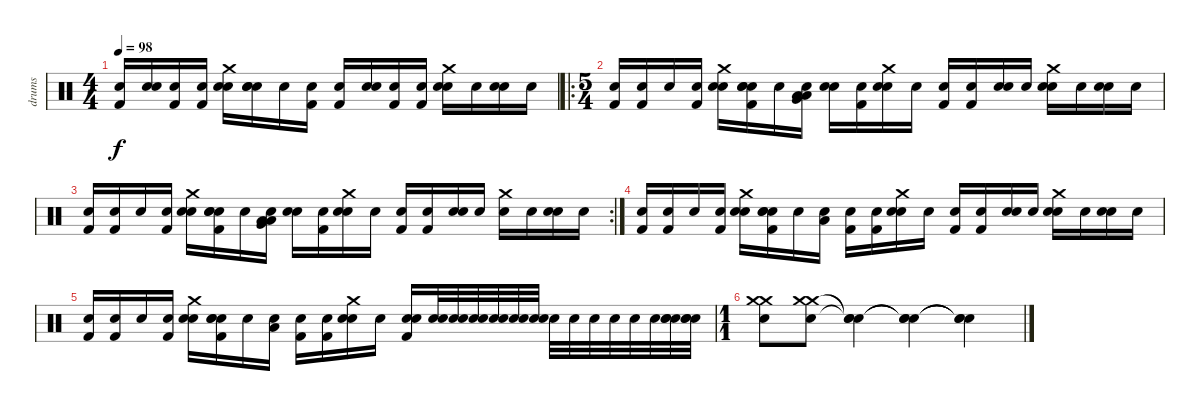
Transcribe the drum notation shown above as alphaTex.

\track ("drums" "drums") {instrument percussion}
\staff {score}
\articulation defaults
\ts (4 4)
\tempo 98
\clef neutral
\ks c
("Snare (hit)" "Kick (hit) 2").16{dy f} ("Snare (hit)" "Snare (hit) 2").16 ("Snare (hit)" "Kick (hit) 2").16 ("Snare (hit)" "Kick (hit) 2").16 ("Snare (hit)" "Crash medium (hit)" "Snare (hit) 2").16 ("Snare (hit)" "Snare (hit)" "Snare (hit)").16 "Snare (hit)".16 ("Snare (hit)" "Kick (hit) 2").16 ("Snare (hit)" "Kick (hit) 2").16 ("Snare (hit)" "Snare (hit) 2").16 ("Snare (hit)" "Kick (hit) 2").16 ("Snare (hit)" "Kick (hit) 2").16 ("Snare (hit)" "Crash medium (hit)" "Snare (hit) 2").16 "Snare (hit)".16 ("Snare (hit)" "Snare (hit) 2").16 "Snare (hit)".16 |
\ro
\ts (5 4)
("Snare (hit)" "Kick (hit) 2").16 ("Snare (hit)" "Kick (hit) 2").16 "Snare (hit)".16 ("Snare (hit)" "Kick (hit) 2").16 ("Snare (hit)" "Crash medium (hit)" "Snare (hit) 2").16 ("Snare (hit)" "Snare (hit)" "Snare (hit)" "Kick (hit) 2").16 "Snare (hit)".16 ("Snare (hit)" "Low Floor Tom (hit)" "Very Low Tom (hit)" "Low Tom (hit)").16 ("Snare (hit)" "Snare (hit)").16 ("Snare (hit)" "Kick (hit) 2").16 ("Snare (hit)" "Crash medium (hit)" "Snare (hit) 2").16 "Snare (hit)".16 ("Snare (hit)" "Kick (hit) 2").16 ("Snare (hit)" "Kick (hit) 2").16 ("Snare (hit)" "Snare (hit) 2").16 "Snare (hit)".16 ("Snare (hit)" "Crash medium (hit)" "Snare (hit) 2").16 "Snare (hit)".16 ("Snare (hit)" "Snare (hit) 2").16 "Snare (hit)".16 |
\rc 2
("Snare (hit)" "Kick (hit) 2").16 ("Snare (hit)" "Kick (hit) 2").16 "Snare (hit)".16 ("Snare (hit)" "Kick (hit) 2").16 ("Snare (hit)" "Crash medium (hit)" "Snare (hit) 2").16 ("Snare (hit)" "Snare (hit)" "Snare (hit)" "Kick (hit) 2").16 "Snare (hit)".16 ("Snare (hit)" "Low Floor Tom (hit)" "Very Low Tom (hit)" "Low Tom (hit)").16 ("Snare (hit)" "Snare (hit)").16 ("Snare (hit)" "Kick (hit) 2").16 ("Snare (hit)" "Crash medium (hit)" "Snare (hit) 2").16 "Snare (hit)".16 ("Snare (hit)" "Kick (hit) 2").16 ("Snare (hit)" "Kick (hit) 2").16 ("Snare (hit)" "Snare (hit) 2").16 "Snare (hit)".16 ("Crash medium (hit)" "Snare (hit) 2").16 "Snare (hit)".16 ("Snare (hit)" "Snare (hit) 2").16 "Snare (hit)".16 |
("Snare (hit)" "Kick (hit) 2").16 ("Snare (hit)" "Kick (hit) 2").16 "Snare (hit)".16 ("Snare (hit)" "Kick (hit) 2").16 ("Snare (hit)" "Crash medium (hit)" "Snare (hit) 2").16 ("Snare (hit)" "Snare (hit)" "Snare (hit)" "Kick (hit) 2").16 "Snare (hit)".16 ("Snare (hit)" "Low Floor Tom (hit)").16 ("Snare (hit)" "Kick (hit) 2").16 ("Snare (hit)" "Kick (hit) 2").16 ("Snare (hit)" "Crash medium (hit)" "Snare (hit) 2").16 "Snare (hit)".16 ("Snare (hit)" "Kick (hit) 2").16 ("Snare (hit)" "Kick (hit) 2").16 ("Snare (hit)" "Snare (hit) 2").16 "Snare (hit)".16 ("Snare (hit)" "Crash medium (hit)" "Snare (hit) 2").16 "Snare (hit)".16 ("Snare (hit)" "Snare (hit) 2").16 "Snare (hit)".16 |
("Snare (hit)" "Kick (hit) 2").16 ("Snare (hit)" "Kick (hit) 2").16 "Snare (hit)".16 ("Snare (hit)" "Kick (hit) 2").16 ("Snare (hit)" "Crash medium (hit)" "Snare (hit) 2").16 ("Snare (hit)" "Snare (hit)" "Snare (hit)" "Kick (hit) 2").16 "Snare (hit)".16 ("Snare (hit)" "Low Floor Tom (hit)").16 ("Snare (hit)" "Kick (hit) 2").16 ("Snare (hit)" "Kick (hit) 2").16 ("Snare (hit)" "Crash medium (hit)" "Snare (hit) 2").16 "Snare (hit)".16 ("Snare (hit)" "Snare (hit)" "Kick (hit) 2").16 ("Snare (hit)" "Snare (hit) 2").32 ("Snare (hit)" "Snare (hit) 2").32 ("Snare (hit)" "Snare (hit) 2").32 ("Snare (hit)" "Snare (hit) 2").32 ("Snare (hit)" "Snare (hit) 2").32 ("Snare (hit)" "Snare (hit) 2").32 "Snare (hit)".32 "Snare (hit)".32 "Snare (hit) 2".32 "Snare (hit) 2".32 "Snare (hit) 2".32 "Snare (hit) 2".32 ("Snare (hit)" "Snare (hit)" "Snare (hit) 2").32 ("Snare (hit)" "Snare (hit)" "Snare (hit) 2").32 |
\ts (1 1)
("Crash medium (hit)" "Crash medium (hit)" "Snare (hit) 2").8 ("Crash medium (hit)" "Crash medium (hit)" "Snare (hit) 2").8 ("Snare (hit)"{t} "Snare (hit)"{t} "Snare (hit)"{t}).4 ("Snare (hit)"{t} "Snare (hit)"{t} "Snare (hit)"{t}).4 ("Snare (hit)"{t} "Snare (hit)"{t} "Snare (hit)"{t}).4
